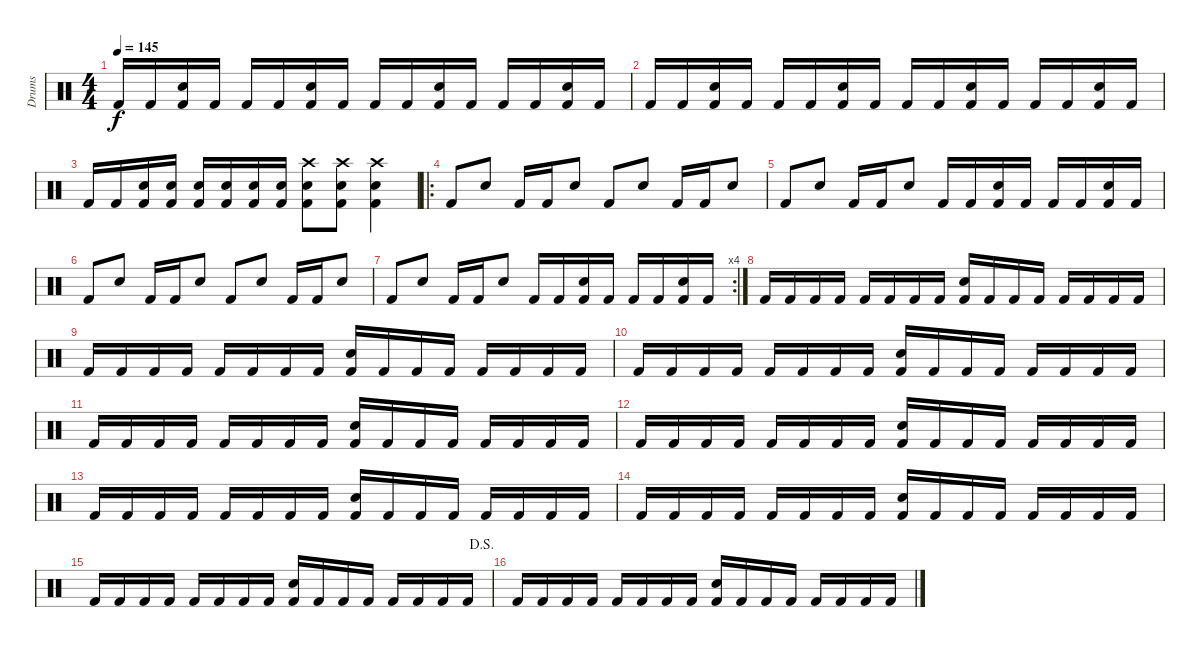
\track ("Drums" "Drums") {instrument percussion}
\staff {score}
\articulation defaults
\ts (4 4)
\tempo 145
\clef neutral
\ks c "Kick (hit) 2".16{dy f} "Kick (hit) 2".16
("Snare (hit) 2" "Kick (hit) 2").16 "Kick (hit) 2".16 "Kick (hit) 2".16 "Kick (hit) 2".16 ("Snare (hit) 2" "Kick (hit) 2").16 "Kick (hit) 2".16 "Kick (hit) 2".16 "Kick (hit) 2".16 ("Snare (hit) 2" "Kick (hit) 2").16 "Kick (hit) 2".16 "Kick (hit) 2".16 "Kick (hit) 2".16 ("Snare (hit) 2" "Kick (hit) 2").16 "Kick (hit) 2".16 |
"Kick (hit) 2".16 "Kick (hit) 2".16 ("Snare (hit) 2" "Kick (hit) 2").16 "Kick (hit) 2".16 "Kick (hit) 2".16 "Kick (hit) 2".16 ("Snare (hit) 2" "Kick (hit) 2").16 "Kick (hit) 2".16 "Kick (hit) 2".16 "Kick (hit) 2".16 ("Snare (hit) 2" "Kick (hit) 2").16 "Kick (hit) 2".16 "Kick (hit) 2".16 "Kick (hit) 2".16 ("Snare (hit) 2" "Kick (hit) 2").16 "Kick (hit) 2".16 |
"Kick (hit) 2".16 "Kick (hit) 2".16 ("Snare (hit) 2" "Kick (hit) 2").16 ("Snare (hit) 2" "Kick (hit) 2").16 ("Snare (hit) 2" "Kick (hit) 2").16 ("Snare (hit) 2" "Kick (hit) 2").16 ("Snare (hit) 2" "Kick (hit) 2").16 ("Snare (hit) 2" "Kick (hit) 2").16 ("Crash high (hit)" "Snare (hit) 2" "Kick (hit) 2").8 ("Crash high (hit)" "Snare (hit) 2" "Kick (hit) 2").8 ("Crash high (hit)" "Snare (hit) 2" "Kick (hit) 2").4 |
\ro "Kick (hit) 2".8 "Snare (hit) 2".8 "Kick (hit) 2".16 "Kick (hit) 2".16 "Snare (hit) 2".8 "Kick (hit) 2".8 "Snare (hit) 2".8 "Kick (hit) 2".16 "Kick (hit) 2".16 "Snare (hit) 2".8
|
"Kick (hit) 2".8 "Snare (hit) 2".8 "Kick (hit) 2".16 "Kick (hit) 2".16 "Snare (hit) 2".8 "Kick (hit) 2".16 "Kick (hit) 2".16 ("Snare (hit) 2" "Kick (hit) 2").16 "Kick (hit) 2".16 "Kick (hit) 2".16 "Kick (hit) 2".16 ("Snare (hit) 2" "Kick (hit) 2").16 "Kick (hit) 2".16 |
"Kick (hit) 2".8 "Snare (hit) 2".8 "Kick (hit) 2".16 "Kick (hit) 2".16 "Snare (hit) 2".8 "Kick (hit) 2".8 "Snare (hit) 2".8 "Kick (hit) 2".16 "Kick (hit) 2".16 "Snare (hit) 2".8 |
\rc 4 "Kick (hit) 2".8 "Snare (hit) 2".8 "Kick (hit) 2".16 "Kick (hit) 2".16 "Snare (hit) 2".8 "Kick (hit) 2".16 "Kick (hit) 2".16
("Snare (hit) 2" "Kick (hit) 2").16 "Kick (hit) 2".16 "Kick (hit) 2".16 "Kick (hit) 2".16 ("Snare (hit) 2" "Kick (hit) 2").16 "Kick (hit) 2".16 |
"Kick (hit) 2".16 "Kick (hit) 2".16 "Kick (hit) 2".16 "Kick (hit) 2".16 "Kick (hit) 2".16 "Kick (hit) 2".16 "Kick (hit) 2".16 "Kick (hit) 2".16 ("Snare (hit) 2" "Kick (hit) 2").16 "Kick (hit) 2".16 "Kick (hit) 2".16 "Kick (hit) 2".16 "Kick (hit) 2".16 "Kick (hit) 2".16 "Kick (hit) 2".16 "Kick (hit) 2".16 |
"Kick (hit) 2".16 "Kick (hit) 2".16 "Kick (hit) 2".16 "Kick (hit) 2".16 "Kick (hit) 2".16 "Kick (hit) 2".16 "Kick (hit) 2".16 "Kick (hit) 2".16 ("Snare (hit) 2" "Kick (hit) 2").16 "Kick (hit) 2".16 "Kick (hit) 2".16 "Kick (hit) 2".16 "Kick (hit) 2".16 "Kick (hit) 2".16 "Kick (hit) 2".16 "Kick (hit) 2".16 |
"Kick (hit) 2".16 "Kick (hit) 2".16 "Kick (hit) 2".16 "Kick (hit) 2".16 "Kick (hit) 2".16 "Kick (hit) 2".16 "Kick (hit) 2".16 "Kick (hit) 2".16 ("Snare (hit) 2" "Kick (hit) 2").16 "Kick (hit) 2".16 "Kick (hit) 2".16 "Kick (hit) 2".16 "Kick (hit) 2".16 "Kick (hit) 2".16 "Kick (hit) 2".16 "Kick (hit) 2".16 |
"Kick (hit) 2".16 "Kick (hit) 2".16 "Kick (hit) 2".16 "Kick (hit) 2".16 "Kick (hit) 2".16 "Kick (hit) 2".16 "Kick (hit) 2".16 "Kick (hit) 2".16 ("Snare (hit) 2" "Kick (hit) 2").16 "Kick (hit) 2".16 "Kick (hit) 2".16 "Kick (hit) 2".16 "Kick (hit) 2".16 "Kick (hit) 2".16 "Kick (hit) 2".16 "Kick (hit) 2".16 |
"Kick (hit) 2".16 "Kick (hit) 2".16 "Kick (hit) 2".16 "Kick (hit) 2".16 "Kick (hit) 2".16 "Kick (hit) 2".16 "Kick (hit) 2".16 "Kick (hit) 2".16 ("Snare (hit) 2" "Kick (hit) 2").16 "Kick (hit) 2".16 "Kick (hit) 2".16 "Kick (hit) 2".16 "Kick (hit) 2".16 "Kick (hit) 2".16 "Kick (hit) 2".16 "Kick (hit) 2".16 |
"Kick (hit) 2".16 "Kick (hit) 2".16 "Kick (hit) 2".16 "Kick (hit) 2".16 "Kick (hit) 2".16 "Kick (hit) 2".16 "Kick (hit) 2".16 "Kick (hit) 2".16 ("Snare (hit) 2" "Kick (hit) 2").16 "Kick (hit) 2".16 "Kick (hit) 2".16 "Kick (hit) 2".16 "Kick (hit) 2".16 "Kick (hit) 2".16 "Kick (hit) 2".16 "Kick (hit) 2".16 |
"Kick (hit) 2".16 "Kick (hit) 2".16 "Kick (hit) 2".16 "Kick (hit) 2".16 "Kick (hit) 2".16 "Kick (hit) 2".16 "Kick (hit) 2".16 "Kick (hit) 2".16 ("Snare (hit) 2" "Kick (hit) 2").16 "Kick (hit) 2".16 "Kick (hit) 2".16 "Kick (hit) 2".16 "Kick (hit) 2".16 "Kick (hit) 2".16 "Kick (hit) 2".16 "Kick (hit) 2".16 |
\jump dalsegno "Kick (hit) 2".16 "Kick (hit) 2".16 "Kick (hit) 2".16 "Kick (hit) 2".16 "Kick (hit) 2".16 "Kick (hit) 2".16 "Kick (hit) 2".16 "Kick (hit) 2".16
("Snare (hit) 2" "Kick (hit) 2").16 "Kick (hit) 2".16 "Kick (hit) 2".16 "Kick (hit) 2".16 "Kick (hit) 2".16 "Kick (hit) 2".16 "Kick (hit) 2".16 "Kick (hit) 2".16 |
"Kick (hit) 2".16 "Kick (hit) 2".16 "Kick (hit) 2".16 "Kick (hit) 2".16 "Kick (hit) 2".16 "Kick (hit) 2".16 "Kick (hit) 2".16 "Kick (hit) 2".16 ("Snare (hit) 2" "Kick (hit) 2").16 "Kick (hit) 2".16 "Kick (hit) 2".16 "Kick (hit) 2".16 "Kick (hit) 2".16 "Kick (hit) 2".16 "Kick (hit) 2".16 "Kick (hit) 2".16
